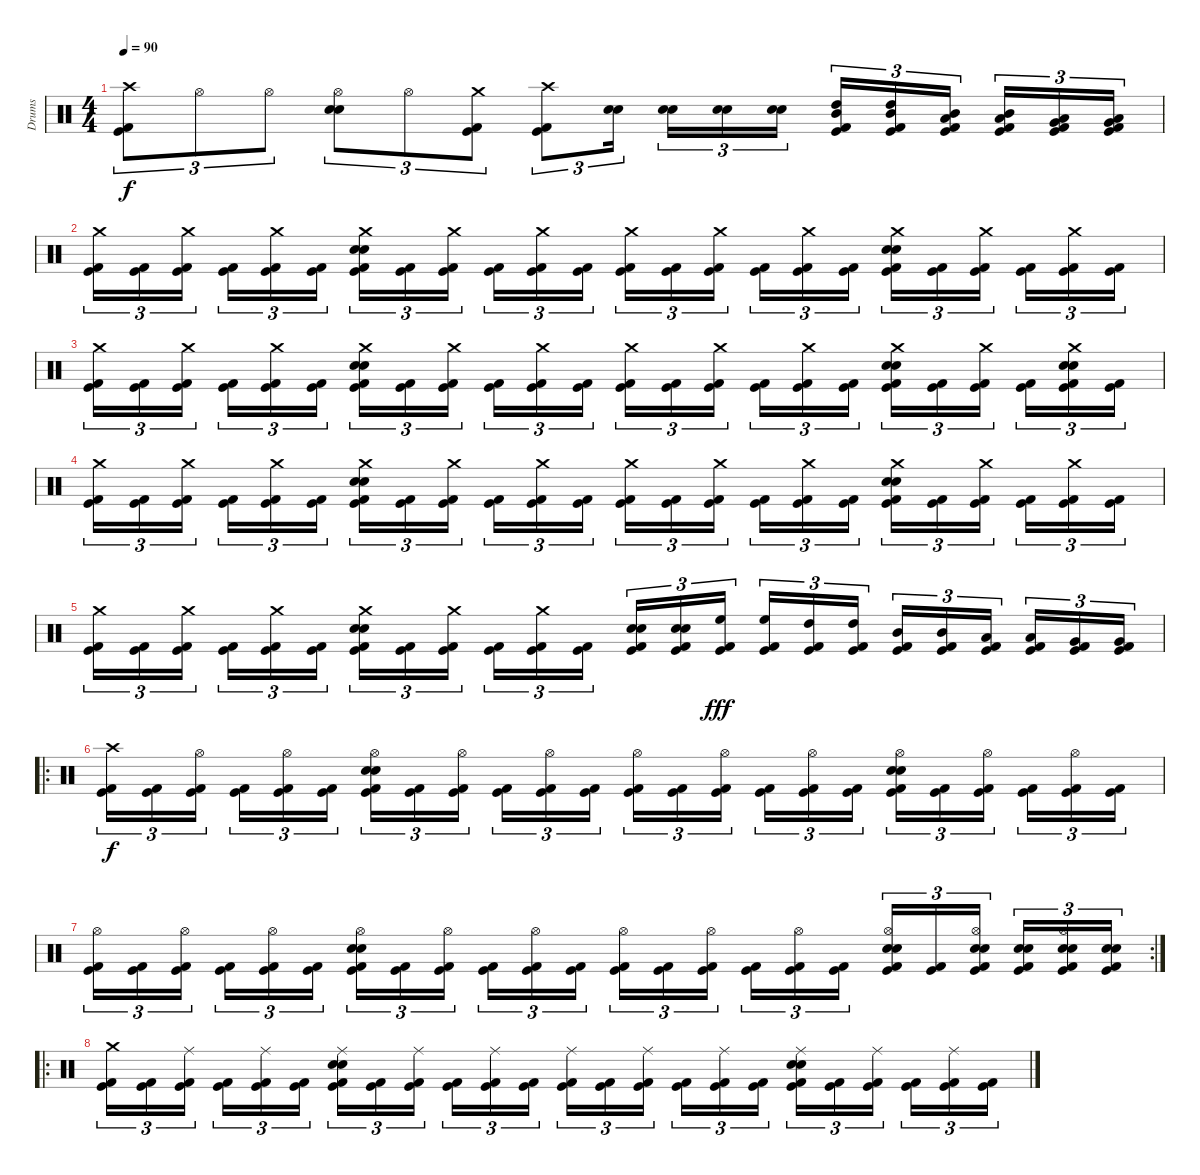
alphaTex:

\track ("Drums" "Drums") {instrument percussion}
\staff {score}
\articulation defaults
\ts (4 4)
\tempo 90
\clef neutral
\ks c
("Crash high (hit)" "Kick (hit)" "Kick (hit) 2").8{tu (3 2) dy f} "Hi-Hat (open)".8{tu (3 2)} "Hi-Hat (open)".8{tu (3 2)} ("Hi-Hat (open)" "Electric Snare (hit)" "Snare (hit) 2").8{tu (3 2)} "Hi-Hat (open)".8{tu (3 2)} ("Crash medium (hit)" "Kick (hit)" "Kick (hit) 2").8{tu (3 2)} ("Crash high (hit)" "Kick (hit)" "Kick (hit) 2").8{tu (3 2)} ("Snare (hit) 2" "Electric Snare (hit)").16{tu (3 2) beam splitsecondary} ("Snare (hit) 2" "Electric Snare (hit)").16{tu (3 2)} ("Snare (hit) 2" "Electric Snare (hit)").16{tu (3 2)} ("Snare (hit) 2" "Electric Snare (hit)").16{tu (3 2)} ("High Tom (hit)" "Mid Tom (hit)" "Kick (hit)" "Kick (hit) 2").16{tu (3 2)} ("High Tom (hit)" "Mid Tom (hit)" "Kick (hit)" "Kick (hit) 2").16{tu (3 2)} ("Mid Tom (hit)" "Low Tom (hit)" "Kick (hit)" "Kick (hit) 2").16{tu (3 2) beam splitsecondary} ("Mid Tom (hit)" "Low Tom (hit)" "Kick (hit)" "Kick (hit) 2").16{tu (3 2)} ("Low Tom (hit)" "Very Low Tom (hit)" "Kick (hit)" "Kick (hit) 2").16{tu (3 2)} ("Very Low Tom (hit)" "Low Floor Tom (hit)" "Kick (hit)" "Kick (hit) 2").16{tu (3 2)} |
("Crash medium (hit)" "Kick (hit)" "Kick (hit) 2").16{tu (3 2)} ("Kick (hit)" "Kick (hit) 2").16{tu (3 2)} ("Crash medium (hit)" "Kick (hit)" "Kick (hit) 2").16{tu (3 2) beam splitsecondary} ("Kick (hit)" "Kick (hit) 2").16{tu (3 2)} ("Crash medium (hit)" "Kick (hit)" "Kick (hit) 2").16{tu (3 2)} ("Kick (hit)" "Kick (hit) 2").16{tu (3 2)} ("Crash medium (hit)" "Snare (hit) 2" "Electric Snare (hit)" "Kick (hit)" "Kick (hit) 2").16{tu (3 2)} ("Kick (hit)" "Kick (hit) 2").16{tu (3 2)} ("Crash medium (hit)" "Kick (hit)" "Kick (hit) 2").16{tu (3 2) beam splitsecondary} ("Kick (hit)" "Kick (hit) 2").16{tu (3 2)} ("Crash medium (hit)" "Kick (hit)" "Kick (hit) 2").16{tu (3 2)} ("Kick (hit)" "Kick (hit) 2").16{tu (3 2)} ("Crash medium (hit)" "Kick (hit)" "Kick (hit) 2").16{tu (3 2)} ("Kick (hit)" "Kick (hit) 2").16{tu (3 2)} ("Crash medium (hit)" "Kick (hit)" "Kick (hit) 2").16{tu (3 2) beam splitsecondary} ("Kick (hit)" "Kick (hit) 2").16{tu (3 2)} ("Crash medium (hit)" "Kick (hit)" "Kick (hit) 2").16{tu (3 2)} ("Kick (hit)" "Kick (hit) 2").16{tu (3 2)} ("Crash medium (hit)" "Electric Snare (hit)" "Snare (hit) 2" "Kick (hit)" "Kick (hit) 2").16{tu (3 2)} ("Kick (hit)" "Kick (hit) 2").16{tu (3 2)} ("Crash medium (hit)" "Kick (hit)" "Kick (hit) 2").16{tu (3 2) beam splitsecondary} ("Kick (hit)" "Kick (hit) 2").16{tu (3 2)} ("Crash medium (hit)" "Kick (hit)" "Kick (hit) 2").16{tu (3 2)} ("Kick (hit)" "Kick (hit) 2").16{tu (3 2)} |
("Crash medium (hit)" "Kick (hit)" "Kick (hit) 2").16{tu (3 2)} ("Kick (hit)" "Kick (hit) 2").16{tu (3 2)} ("Crash medium (hit)" "Kick (hit)" "Kick (hit) 2").16{tu (3 2) beam splitsecondary} ("Kick (hit)" "Kick (hit) 2").16{tu (3 2)} ("Crash medium (hit)" "Kick (hit)" "Kick (hit) 2").16{tu (3 2)} ("Kick (hit)" "Kick (hit) 2").16{tu (3 2)} ("Crash medium (hit)" "Snare (hit) 2" "Electric Snare (hit)" "Kick (hit)" "Kick (hit) 2").16{tu (3 2)} ("Kick (hit)" "Kick (hit) 2").16{tu (3 2)} ("Crash medium (hit)" "Kick (hit)" "Kick (hit) 2").16{tu (3 2) beam splitsecondary} ("Kick (hit)" "Kick (hit) 2").16{tu (3 2)} ("Crash medium (hit)" "Kick (hit)" "Kick (hit) 2").16{tu (3 2)} ("Kick (hit)" "Kick (hit) 2").16{tu (3 2)} ("Crash medium (hit)" "Kick (hit)" "Kick (hit) 2").16{tu (3 2)} ("Kick (hit)" "Kick (hit) 2").16{tu (3 2)} ("Crash medium (hit)" "Kick (hit)" "Kick (hit) 2").16{tu (3 2) beam splitsecondary} ("Kick (hit)" "Kick (hit) 2").16{tu (3 2)} ("Crash medium (hit)" "Kick (hit)" "Kick (hit) 2").16{tu (3 2)} ("Kick (hit)" "Kick (hit) 2").16{tu (3 2)} ("Crash medium (hit)" "Electric Snare (hit)" "Snare (hit) 2" "Kick (hit)" "Kick (hit) 2").16{tu (3 2)} ("Kick (hit)" "Kick (hit) 2").16{tu (3 2)} ("Crash medium (hit)" "Kick (hit)" "Kick (hit) 2").16{tu (3 2) beam splitsecondary} ("Kick (hit)" "Kick (hit) 2").16{tu (3 2)} ("Crash medium (hit)" "Electric Snare (hit)" "Snare (hit) 2" "Kick (hit)" "Kick (hit) 2").16{tu (3 2)} ("Kick (hit)" "Kick (hit) 2").16{tu (3 2)} |
("Crash medium (hit)" "Kick (hit)" "Kick (hit) 2").16{tu (3 2)} ("Kick (hit)" "Kick (hit) 2").16{tu (3 2)} ("Crash medium (hit)" "Kick (hit)" "Kick (hit) 2").16{tu (3 2) beam splitsecondary} ("Kick (hit)" "Kick (hit) 2").16{tu (3 2)} ("Crash medium (hit)" "Kick (hit)" "Kick (hit) 2").16{tu (3 2)} ("Kick (hit)" "Kick (hit) 2").16{tu (3 2)} ("Crash medium (hit)" "Snare (hit) 2" "Electric Snare (hit)" "Kick (hit)" "Kick (hit) 2").16{tu (3 2)} ("Kick (hit)" "Kick (hit) 2").16{tu (3 2)} ("Crash medium (hit)" "Kick (hit)" "Kick (hit) 2").16{tu (3 2) beam splitsecondary} ("Kick (hit)" "Kick (hit) 2").16{tu (3 2)} ("Crash medium (hit)" "Kick (hit)" "Kick (hit) 2").16{tu (3 2)} ("Kick (hit)" "Kick (hit) 2").16{tu (3 2)} ("Crash medium (hit)" "Kick (hit)" "Kick (hit) 2").16{tu (3 2)} ("Kick (hit)" "Kick (hit) 2").16{tu (3 2)} ("Crash medium (hit)" "Kick (hit)" "Kick (hit) 2").16{tu (3 2) beam splitsecondary} ("Kick (hit)" "Kick (hit) 2").16{tu (3 2)} ("Crash medium (hit)" "Kick (hit)" "Kick (hit) 2").16{tu (3 2)} ("Kick (hit)" "Kick (hit) 2").16{tu (3 2)} ("Crash medium (hit)" "Electric Snare (hit)" "Snare (hit) 2" "Kick (hit)" "Kick (hit) 2").16{tu (3 2)} ("Kick (hit)" "Kick (hit) 2").16{tu (3 2)} ("Crash medium (hit)" "Kick (hit)" "Kick (hit) 2").16{tu (3 2) beam splitsecondary} ("Kick (hit)" "Kick (hit) 2").16{tu (3 2)} ("Crash medium (hit)" "Kick (hit)" "Kick (hit) 2").16{tu (3 2)} ("Kick (hit)" "Kick (hit) 2").16{tu (3 2)} |
("Crash medium (hit)" "Kick (hit)" "Kick (hit) 2").16{tu (3 2)} ("Kick (hit)" "Kick (hit) 2").16{tu (3 2)} ("Crash medium (hit)" "Kick (hit)" "Kick (hit) 2").16{tu (3 2) beam splitsecondary} ("Kick (hit)" "Kick (hit) 2").16{tu (3 2)} ("Crash medium (hit)" "Kick (hit)" "Kick (hit) 2").16{tu (3 2)} ("Kick (hit)" "Kick (hit) 2").16{tu (3 2)} ("Crash medium (hit)" "Snare (hit) 2" "Electric Snare (hit)" "Kick (hit)" "Kick (hit) 2").16{tu (3 2)} ("Kick (hit)" "Kick (hit) 2").16{tu (3 2)} ("Crash medium (hit)" "Kick (hit)" "Kick (hit) 2").16{tu (3 2) beam splitsecondary} ("Kick (hit)" "Kick (hit) 2").16{tu (3 2)} ("Crash medium (hit)" "Kick (hit)" "Kick (hit) 2").16{tu (3 2)} ("Kick (hit)" "Kick (hit) 2").16{tu (3 2)} ("Snare (hit) 2" "Electric Snare (hit)" "Kick (hit)" "Kick (hit) 2").16{tu (3 2)} ("Snare (hit) 2" "Electric Snare (hit)" "Kick (hit)" "Kick (hit) 2").16{tu (3 2)} ("High Floor Tom (hit)" "Kick (hit)" "Kick (hit) 2").16{tu (3 2) dy fff beam splitsecondary} ("High Floor Tom (hit)" "Kick (hit)" "Kick (hit) 2").16{tu (3 2)} ("High Tom (hit)" "Kick (hit)" "Kick (hit) 2").16{tu (3 2)} ("High Tom (hit)" "Kick (hit)" "Kick (hit) 2").16{tu (3 2)} ("Mid Tom (hit)" "Kick (hit)" "Kick (hit) 2").16{tu (3 2)} ("Mid Tom (hit)" "Kick (hit)" "Kick (hit) 2").16{tu (3 2)} ("Low Tom (hit)" "Kick (hit)" "Kick (hit) 2").16{tu (3 2) beam splitsecondary} ("Low Tom (hit)" "Kick (hit)" "Kick (hit) 2").16{tu (3 2)} ("Very Low Tom (hit)" "Kick (hit)" "Kick (hit) 2").16{tu (3 2)} ("Very Low Tom (hit)" "Kick (hit)" "Kick (hit) 2").16{tu (3 2)} |
\ro
("Crash high (hit)" "Kick (hit)" "Kick (hit) 2").16{tu (3 2) dy f} ("Kick (hit)" "Kick (hit) 2").16{tu (3 2)} ("Hi-Hat (open)" "Kick (hit)" "Kick (hit) 2").16{tu (3 2) beam splitsecondary} ("Kick (hit)" "Kick (hit) 2").16{tu (3 2)} ("Hi-Hat (open)" "Kick (hit)" "Kick (hit) 2").16{tu (3 2)} ("Kick (hit)" "Kick (hit) 2").16{tu (3 2)} ("Hi-Hat (open)" "Snare (hit) 2" "Electric Snare (hit)" "Kick (hit)" "Kick (hit) 2").16{tu (3 2)} ("Kick (hit)" "Kick (hit) 2").16{tu (3 2)} ("Hi-Hat (open)" "Kick (hit)" "Kick (hit) 2").16{tu (3 2) beam splitsecondary} ("Kick (hit)" "Kick (hit) 2").16{tu (3 2)} ("Hi-Hat (open)" "Kick (hit)" "Kick (hit) 2").16{tu (3 2)} ("Kick (hit)" "Kick (hit) 2").16{tu (3 2)} ("Hi-Hat (open)" "Kick (hit)" "Kick (hit) 2").16{tu (3 2)} ("Kick (hit)" "Kick (hit) 2").16{tu (3 2)} ("Hi-Hat (open)" "Kick (hit)" "Kick (hit) 2").16{tu (3 2) beam splitsecondary} ("Kick (hit)" "Kick (hit) 2").16{tu (3 2)} ("Hi-Hat (open)" "Kick (hit)" "Kick (hit) 2").16{tu (3 2)} ("Kick (hit)" "Kick (hit) 2").16{tu (3 2)} ("Hi-Hat (open)" "Electric Snare (hit)" "Snare (hit) 2" "Kick (hit)" "Kick (hit) 2").16{tu (3 2)} ("Kick (hit)" "Kick (hit) 2").16{tu (3 2)} ("Hi-Hat (open)" "Kick (hit)" "Kick (hit) 2").16{tu (3 2) beam splitsecondary} ("Kick (hit)" "Kick (hit) 2").16{tu (3 2)} ("Hi-Hat (open)" "Kick (hit)" "Kick (hit) 2").16{tu (3 2)} ("Kick (hit)" "Kick (hit) 2").16{tu (3 2)} |
\rc 2
("Hi-Hat (open)" "Kick (hit)" "Kick (hit) 2").16{tu (3 2)} ("Kick (hit)" "Kick (hit) 2").16{tu (3 2)} ("Hi-Hat (open)" "Kick (hit)" "Kick (hit) 2").16{tu (3 2) beam splitsecondary} ("Kick (hit)" "Kick (hit) 2").16{tu (3 2)} ("Hi-Hat (open)" "Kick (hit)" "Kick (hit) 2").16{tu (3 2)} ("Kick (hit)" "Kick (hit) 2").16{tu (3 2)} ("Hi-Hat (open)" "Snare (hit) 2" "Electric Snare (hit)" "Kick (hit)" "Kick (hit) 2").16{tu (3 2)} ("Kick (hit)" "Kick (hit) 2").16{tu (3 2)} ("Hi-Hat (open)" "Kick (hit)" "Kick (hit) 2").16{tu (3 2) beam splitsecondary} ("Kick (hit)" "Kick (hit) 2").16{tu (3 2)} ("Hi-Hat (open)" "Kick (hit)" "Kick (hit) 2").16{tu (3 2)} ("Kick (hit)" "Kick (hit) 2").16{tu (3 2)} ("Hi-Hat (open)" "Kick (hit)" "Kick (hit) 2").16{tu (3 2)} ("Kick (hit)" "Kick (hit) 2").16{tu (3 2)} ("Hi-Hat (open)" "Kick (hit)" "Kick (hit) 2").16{tu (3 2) beam splitsecondary} ("Kick (hit)" "Kick (hit) 2").16{tu (3 2)} ("Hi-Hat (open)" "Kick (hit)" "Kick (hit) 2").16{tu (3 2)} ("Kick (hit)" "Kick (hit) 2").16{tu (3 2)} ("Hi-Hat (open)" "Electric Snare (hit)" "Snare (hit) 2" "Kick (hit)" "Kick (hit) 2").16{tu (3 2)} ("Kick (hit)" "Kick (hit) 2").16{tu (3 2)} ("Hi-Hat (open)" "Electric Snare (hit)" "Snare (hit) 2" "Kick (hit)" "Kick (hit) 2").16{tu (3 2) beam splitsecondary} ("Electric Snare (hit)" "Snare (hit) 2" "Kick (hit)" "Kick (hit) 2").16{tu (3 2)} ("Hi-Hat (open)" "Electric Snare (hit)" "Snare (hit) 2" "Kick (hit)" "Kick (hit) 2").16{tu (3 2)} ("Electric Snare (hit)" "Snare (hit) 2" "Kick (hit)" "Kick (hit) 2").16{tu (3 2)} |
\ro
("Crash medium (hit)" "Kick (hit)" "Kick (hit) 2").16{tu (3 2)} ("Kick (hit)" "Kick (hit) 2").16{tu (3 2)} ("Ride (middle)" "Kick (hit)" "Kick (hit) 2").16{tu (3 2) beam splitsecondary} ("Kick (hit)" "Kick (hit) 2").16{tu (3 2)} ("Ride (middle)" "Kick (hit)" "Kick (hit) 2").16{tu (3 2)} ("Kick (hit)" "Kick (hit) 2").16{tu (3 2)} ("Ride (middle)" "Snare (hit) 2" "Electric Snare (hit)" "Kick (hit)" "Kick (hit) 2").16{tu (3 2)} ("Kick (hit)" "Kick (hit) 2").16{tu (3 2)} ("Ride (middle)" "Kick (hit)" "Kick (hit) 2").16{tu (3 2) beam splitsecondary} ("Kick (hit)" "Kick (hit) 2").16{tu (3 2)} ("Ride (middle)" "Kick (hit)" "Kick (hit) 2").16{tu (3 2)} ("Kick (hit)" "Kick (hit) 2").16{tu (3 2)} ("Ride (middle)" "Kick (hit)" "Kick (hit) 2").16{tu (3 2)} ("Kick (hit)" "Kick (hit) 2").16{tu (3 2)} ("Ride (middle)" "Kick (hit)" "Kick (hit) 2").16{tu (3 2) beam splitsecondary} ("Kick (hit)" "Kick (hit) 2").16{tu (3 2)} ("Ride (middle)" "Kick (hit)" "Kick (hit) 2").16{tu (3 2)} ("Kick (hit)" "Kick (hit) 2").16{tu (3 2)} ("Ride (middle)" "Electric Snare (hit)" "Snare (hit) 2" "Kick (hit)" "Kick (hit) 2").16{tu (3 2)} ("Kick (hit)" "Kick (hit) 2").16{tu (3 2)} ("Ride (middle)" "Kick (hit)" "Kick (hit) 2").16{tu (3 2) beam splitsecondary} ("Kick (hit)" "Kick (hit) 2").16{tu (3 2)} ("Ride (middle)" "Kick (hit)" "Kick (hit) 2").16{tu (3 2)} ("Kick (hit)" "Kick (hit) 2").16{tu (3 2)}
